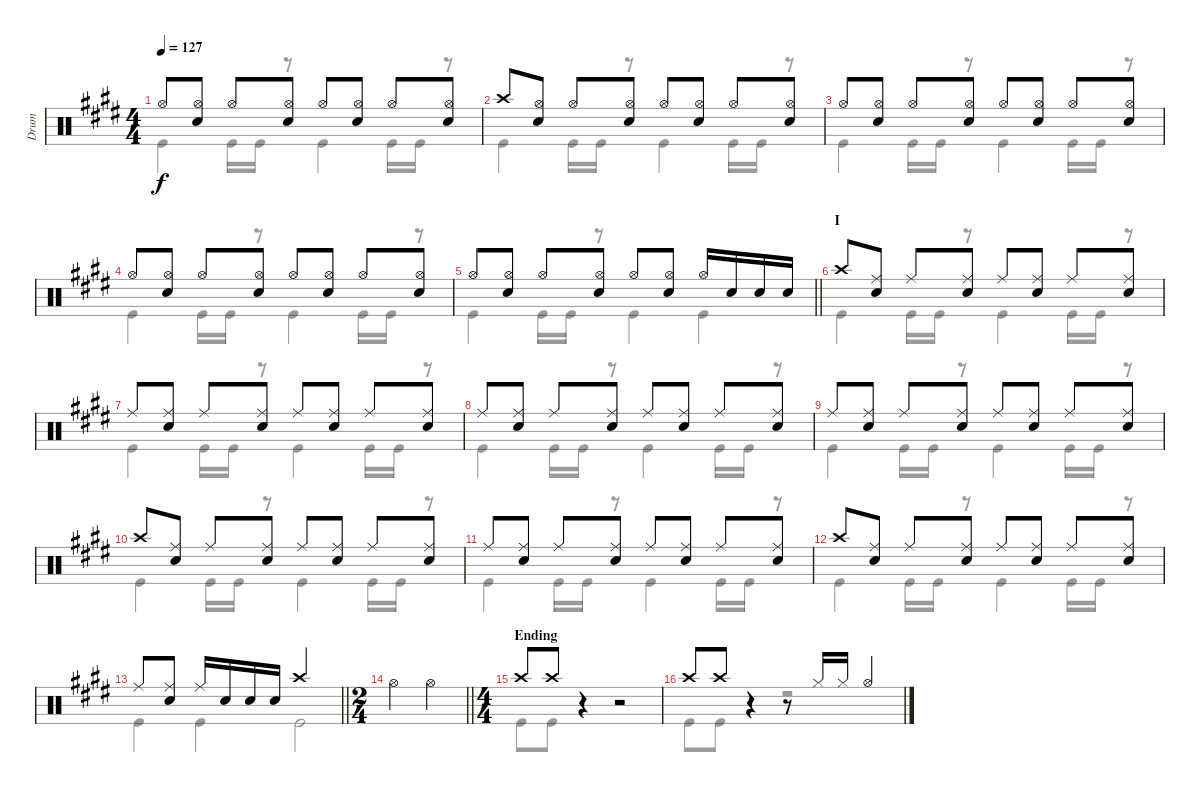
\track ("Drum" "Drum") {instrument percussion}
\staff {score}
\articulation defaults
\voice
\ts (4 4)
\tempo 127
\clef neutral
\ks e "Hi-Hat (open)".8{dy f}
("Hi-Hat (open)" "Snare (hit) 2").8 "Hi-Hat (open)".8 ("Hi-Hat (open)" "Snare (hit) 2").8 "Hi-Hat (open)".8 ("Hi-Hat (open)" "Snare (hit) 2").8 "Hi-Hat (open)".8 ("Hi-Hat (open)" "Snare (hit) 2").8 |
"Crash high (hit)".8 ("Snare (hit) 2" "Hi-Hat (open)").8 "Hi-Hat (open)".8 ("Hi-Hat (open)" "Snare (hit) 2").8 "Hi-Hat (open)".8 ("Hi-Hat (open)" "Snare (hit) 2").8 "Hi-Hat (open)".8 ("Hi-Hat (open)" "Snare (hit) 2").8 |
"Hi-Hat (open)".8 ("Hi-Hat (open)" "Snare (hit) 2").8 "Hi-Hat (open)".8 ("Hi-Hat (open)" "Snare (hit) 2").8 "Hi-Hat (open)".8 ("Hi-Hat (open)" "Snare (hit) 2").8 "Hi-Hat (open)".8 ("Hi-Hat (open)" "Snare (hit) 2").8 |
"Hi-Hat (open)".8 ("Hi-Hat (open)" "Snare (hit) 2").8 "Hi-Hat (open)".8 ("Hi-Hat (open)" "Snare (hit) 2").8 "Hi-Hat (open)".8 ("Hi-Hat (open)" "Snare (hit) 2").8 "Hi-Hat (open)".8 ("Hi-Hat (open)" "Snare (hit) 2").8 |
\barLineRight lightlight "Hi-Hat (open)".8
("Hi-Hat (open)" "Snare (hit) 2").8 "Hi-Hat (open)".8 ("Hi-Hat (open)" "Snare (hit) 2").8 "Hi-Hat (open)".8 ("Hi-Hat (open)" "Snare (hit) 2").8 "Hi-Hat (open)".16 "Snare (hit) 2".16 "Snare (hit) 2".16 "Snare (hit) 2".16 |
\section ("" "I")
"Crash high (hit)".8 ("Snare (hit) 2" "Ride (middle)").8 "Ride (middle)".8 ("Ride (middle)" "Snare (hit) 2").8 "Ride (middle)".8 ("Ride (middle)" "Snare (hit) 2").8 "Ride (middle)".8 ("Ride (middle)" "Snare (hit) 2").8 |
"Ride (middle)".8 ("Ride (middle)" "Snare (hit) 2").8 "Ride (middle)".8 ("Ride (middle)" "Snare (hit) 2").8 "Ride (middle)".8 ("Ride (middle)" "Snare (hit) 2").8 "Ride (middle)".8 ("Ride (middle)" "Snare (hit) 2").8 |
"Ride (middle)".8 ("Snare (hit) 2" "Ride (middle)").8 "Ride (middle)".8 ("Ride (middle)" "Snare (hit) 2").8 "Ride (middle)".8 ("Ride (middle)" "Snare (hit) 2").8 "Ride (middle)".8 ("Ride (middle)" "Snare (hit) 2").8 |
"Ride (middle)".8 ("Ride (middle)" "Snare (hit) 2").8 "Ride (middle)".8 ("Ride (middle)" "Snare (hit) 2").8 "Ride (middle)".8 ("Ride (middle)" "Snare (hit) 2").8 "Ride (middle)".8 ("Ride (middle)" "Snare (hit) 2").8 |
"Crash high (hit)".8 ("Snare (hit) 2" "Ride (middle)").8 "Ride (middle)".8 ("Ride (middle)" "Snare (hit) 2").8 "Ride (middle)".8 ("Ride (middle)" "Snare (hit) 2").8 "Ride (middle)".8 ("Ride (middle)" "Snare (hit) 2").8 |
"Ride (middle)".8 ("Ride (middle)" "Snare (hit) 2").8 "Ride (middle)".8 ("Ride (middle)" "Snare (hit) 2").8 "Ride (middle)".8 ("Ride (middle)" "Snare (hit) 2").8 "Ride (middle)".8 ("Ride (middle)" "Snare (hit) 2").8 |
"Crash high (hit)".8 ("Snare (hit) 2" "Ride (middle)").8 "Ride (middle)".8 ("Ride (middle)" "Snare (hit) 2").8 "Ride (middle)".8 ("Ride (middle)" "Snare (hit) 2").8 "Ride (middle)".8 ("Ride (middle)" "Snare (hit) 2").8 |
\barLineRight lightlight "Ride (middle)".8
("Ride (middle)" "Snare (hit) 2").8 "Ride (middle)".16 "Snare (hit) 2".16 "Snare (hit) 2".16 "Snare (hit) 2".16 "Crash high (hit)".2 |
\ts (2 4)
\barLineRight lightlight "Hi-Hat (open)".4 "Hi-Hat (open)".4
|
\ts (4 4)
\section ("" "Ending")
"Crash high (hit)".8 "Crash high (hit)".8 r.4 r.2 |
"Crash high (hit)".8 "Crash high (hit)".8 r.4 r.8 "Hi-Hat (closed)".16 "Hi-Hat (closed)".16 "Hi-Hat (open)".4
\voice
\clef neutral
\ottava regular
\simile none
\ks e "Kick (hit)".4{dy f} "Kick (hit)".16 "Kick (hit)".16
r.8 "Kick (hit)".4 "Kick (hit)".16 "Kick (hit)".16 r.8 |
"Kick (hit)".4 "Kick (hit)".16 "Kick (hit)".16 r.8 "Kick (hit)".4 "Kick (hit)".16 "Kick (hit)".16 r.8 |
"Kick (hit)".4 "Kick (hit)".16 "Kick (hit)".16 r.8 "Kick (hit)".4 "Kick (hit)".16 "Kick (hit)".16 r.8 |
"Kick (hit)".4 "Kick (hit)".16 "Kick (hit)".16 r.8 "Kick (hit)".4 "Kick (hit)".16 "Kick (hit)".16 r.8 |
\barLineRight lightlight "Kick (hit)".4 "Kick (hit)".16 "Kick (hit)".16
r.8 "Kick (hit)".4 "Kick (hit)".4 |
"Kick (hit)".4 "Kick (hit)".16 "Kick (hit)".16 r.8 "Kick (hit)".4 "Kick (hit)".16 "Kick (hit)".16 r.8 |
"Kick (hit)".4 "Kick (hit)".16 "Kick (hit)".16 r.8 "Kick (hit)".4 "Kick (hit)".16 "Kick (hit)".16 r.8 |
"Kick (hit)".4 "Kick (hit)".16 "Kick (hit)".16 r.8 "Kick (hit)".4 "Kick (hit)".16 "Kick (hit)".16 r.8 |
"Kick (hit)".4 "Kick (hit)".16 "Kick (hit)".16 r.8 "Kick (hit)".4 "Kick (hit)".16 "Kick (hit)".16 r.8 |
"Kick (hit)".4 "Kick (hit)".16 "Kick (hit)".16 r.8 "Kick (hit)".4 "Kick (hit)".16 "Kick (hit)".16 r.8 |
"Kick (hit)".4 "Kick (hit)".16 "Kick (hit)".16 r.8 "Kick (hit)".4 "Kick (hit)".16 "Kick (hit)".16 r.8 |
"Kick (hit)".4 "Kick (hit)".16 "Kick (hit)".16 r.8 "Kick (hit)".4 "Kick (hit)".16 "Kick (hit)".16 r.8 |
\barLineRight lightlight "Kick (hit)".4 "Kick (hit)".4 "Kick (hit)".2
|
\barLineRight lightlight
|
"Kick (hit)".8 "Kick (hit)".8 r.4 r.2 |
"Kick (hit)".8 "Kick (hit)".8 r.4 r.2
